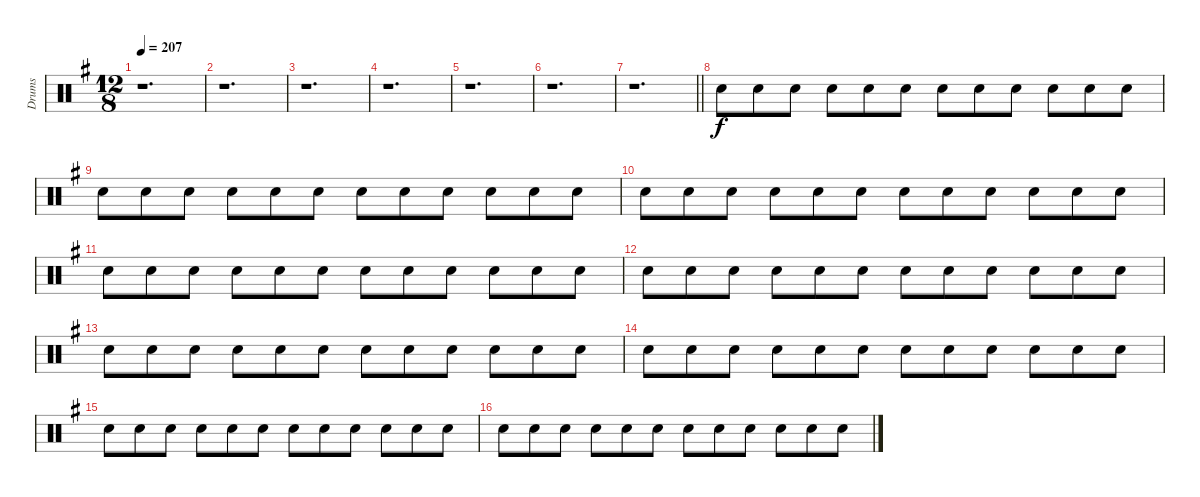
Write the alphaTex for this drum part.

\track ("Drums" "Drums") {instrument percussion}
\staff {score}
\articulation defaults
\ts (12 8)
\tempo 207
\clef neutral
\ks g
r.1{d dy f} |
r.1{d} |
r.1{d} |
r.1{d} |
r.1{d} |
r.1{d} |
\barLineRight lightlight
r.1{d} |
"Electric Snare (hit)".8{volume 6} "Electric Snare (hit)".8 "Electric Snare (hit)".8 "Electric Snare (hit)".8 "Electric Snare (hit)".8 "Electric Snare (hit)".8 "Electric Snare (hit)".8 "Electric Snare (hit)".8 "Electric Snare (hit)".8 "Electric Snare (hit)".8 "Electric Snare (hit)".8 "Electric Snare (hit)".8 |
"Electric Snare (hit)".8 "Electric Snare (hit)".8 "Electric Snare (hit)".8 "Electric Snare (hit)".8 "Electric Snare (hit)".8 "Electric Snare (hit)".8 "Electric Snare (hit)".8 "Electric Snare (hit)".8 "Electric Snare (hit)".8 "Electric Snare (hit)".8 "Electric Snare (hit)".8 "Electric Snare (hit)".8 |
"Electric Snare (hit)".8{volume 7} "Electric Snare (hit)".8 "Electric Snare (hit)".8 "Electric Snare (hit)".8 "Electric Snare (hit)".8 "Electric Snare (hit)".8 "Electric Snare (hit)".8 "Electric Snare (hit)".8 "Electric Snare (hit)".8 "Electric Snare (hit)".8 "Electric Snare (hit)".8 "Electric Snare (hit)".8 |
"Electric Snare (hit)".8 "Electric Snare (hit)".8 "Electric Snare (hit)".8 "Electric Snare (hit)".8 "Electric Snare (hit)".8 "Electric Snare (hit)".8 "Electric Snare (hit)".8 "Electric Snare (hit)".8 "Electric Snare (hit)".8 "Electric Snare (hit)".8 "Electric Snare (hit)".8 "Electric Snare (hit)".8 |
"Electric Snare (hit)".8{volume 8} "Electric Snare (hit)".8 "Electric Snare (hit)".8 "Electric Snare (hit)".8 "Electric Snare (hit)".8 "Electric Snare (hit)".8 "Electric Snare (hit)".8 "Electric Snare (hit)".8 "Electric Snare (hit)".8 "Electric Snare (hit)".8 "Electric Snare (hit)".8 "Electric Snare (hit)".8 |
"Electric Snare (hit)".8 "Electric Snare (hit)".8 "Electric Snare (hit)".8 "Electric Snare (hit)".8 "Electric Snare (hit)".8 "Electric Snare (hit)".8 "Electric Snare (hit)".8 "Electric Snare (hit)".8 "Electric Snare (hit)".8 "Electric Snare (hit)".8 "Electric Snare (hit)".8 "Electric Snare (hit)".8 |
"Electric Snare (hit)".8 "Electric Snare (hit)".8 "Electric Snare (hit)".8 "Electric Snare (hit)".8 "Electric Snare (hit)".8 "Electric Snare (hit)".8 "Electric Snare (hit)".8 "Electric Snare (hit)".8 "Electric Snare (hit)".8 "Electric Snare (hit)".8 "Electric Snare (hit)".8 "Electric Snare (hit)".8 |
"Electric Snare (hit)".8 "Electric Snare (hit)".8 "Electric Snare (hit)".8 "Electric Snare (hit)".8 "Electric Snare (hit)".8 "Electric Snare (hit)".8 "Electric Snare (hit)".8 "Electric Snare (hit)".8 "Electric Snare (hit)".8 "Electric Snare (hit)".8 "Electric Snare (hit)".8 "Electric Snare (hit)".8 |
"Electric Snare (hit)".8{volume 9} "Electric Snare (hit)".8 "Electric Snare (hit)".8 "Electric Snare (hit)".8 "Electric Snare (hit)".8 "Electric Snare (hit)".8 "Electric Snare (hit)".8 "Electric Snare (hit)".8 "Electric Snare (hit)".8 "Electric Snare (hit)".8 "Electric Snare (hit)".8 "Electric Snare (hit)".8
